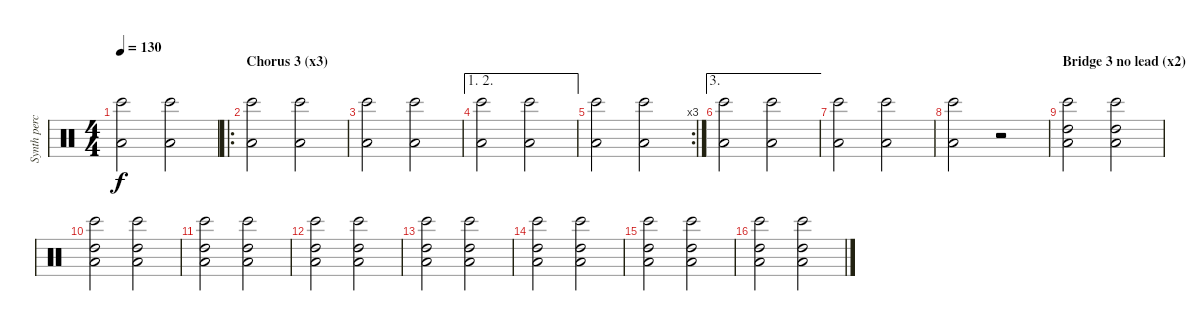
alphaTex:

\track ("Synth perc" "Synth perc") {instrument percussion}
\staff {score}
\articulation defaults
\ts (4 4)
\tempo 130
\clef neutral
\ks c
("Bongo High (hit)" "Low Tom (hit)").2{dy f} ("Bongo High (hit)" "Low Tom (hit)").2 |
\ro
\section ("" "Chorus 3 (x3)")
("Bongo High (hit)" "Low Tom (hit)").2 ("Bongo High (hit)" "Low Tom (hit)").2 |
("Bongo High (hit)" "Low Tom (hit)").2 ("Bongo High (hit)" "Low Tom (hit)").2 |
\ae (1 2)
("Bongo High (hit)" "Low Tom (hit)").2 ("Bongo High (hit)" "Low Tom (hit)").2 |
\rc 3
("Bongo High (hit)" "Low Tom (hit)").2 ("Bongo High (hit)" "Low Tom (hit)").2 |
\ae 3
("Bongo High (hit)" "Low Tom (hit)").2 ("Bongo High (hit)" "Low Tom (hit)").2 |
("Bongo High (hit)" "Low Tom (hit)").2 ("Bongo High (hit)" "Low Tom (hit)").2 |
("Bongo High (hit)" "Low Tom (hit)").2 r.2 |
\section ("" "Bridge 3 no lead (x2)")
("High Tom (hit)" "Bongo High (hit)" "Low Tom (hit)").2 ("High Tom (hit)" "Bongo High (hit)" "Low Tom (hit)").2 |
("High Tom (hit)" "Bongo High (hit)" "Low Tom (hit)").2 ("High Tom (hit)" "Bongo High (hit)" "Low Tom (hit)").2 |
("High Tom (hit)" "Bongo High (hit)" "Low Tom (hit)").2 ("High Tom (hit)" "Bongo High (hit)" "Low Tom (hit)").2 |
("High Tom (hit)" "Bongo High (hit)" "Low Tom (hit)").2 ("High Tom (hit)" "Bongo High (hit)" "Low Tom (hit)").2 |
("High Tom (hit)" "Bongo High (hit)" "Low Tom (hit)").2 ("High Tom (hit)" "Bongo High (hit)" "Low Tom (hit)").2 |
("High Tom (hit)" "Bongo High (hit)" "Low Tom (hit)").2 ("High Tom (hit)" "Bongo High (hit)" "Low Tom (hit)").2 |
("High Tom (hit)" "Bongo High (hit)" "Low Tom (hit)").2 ("High Tom (hit)" "Bongo High (hit)" "Low Tom (hit)").2 |
("High Tom (hit)" "Bongo High (hit)" "Low Tom (hit)").2 ("High Tom (hit)" "Bongo High (hit)" "Low Tom (hit)").2
